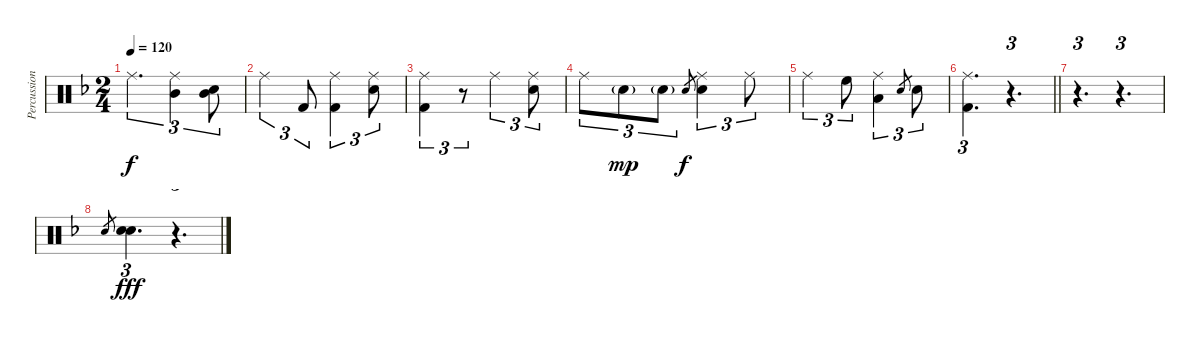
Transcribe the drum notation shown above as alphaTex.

\track ("Percussion" "Percussion") {instrument percussion}
\staff {score}
\articulation defaults
\ts (2 4)
\tempo 120
\clef neutral
\ks dminor "Ride (middle)".4{d tu (3 2) dy f}
("Ride (middle)" "Mid Tom (hit)").4{tu (3 2)} ("Mid Tom (hit)" "Snare (hit) 2").8{tu (3 2)} |
"Ride (middle)".4{tu (3 2)} "Kick (hit) 2".8{tu (3 2)} ("Ride (middle)" "Kick (hit) 2").4{tu (3 2)} ("Ride (middle)" "Snare (hit) 2").8{tu (3 2)} |
("Ride (middle)" "Kick (hit) 2").4{tu (3 2)} r.8{tu (3 2)} "Ride (middle)".4{tu (3 2)} ("Ride (middle)" "Snare (hit) 2").8{tu (3 2)} |
"Ride (middle)".8{tu (3 2)} "Snare (hit) 2"{g}.8{tu (3 2) dy mp} "Snare (hit) 2"{g}.8{tu (3 2)} "Snare (hit) 2".8{gr dy f} ("Ride (middle)" "Snare (hit) 2").4{tu (3 2)} "Ride (middle)".8{tu (3 2)} |
"Ride (middle)".4{tu (3 2)} "High Floor Tom (hit)".8{tu (3 2)} ("Ride (middle)" "Low Tom (hit)").4{tu (3 2)} "Snare (hit) 2".8{gr} "Snare (hit) 2".8{tu (3 2)} |
\barLineRight lightlight
("Ride (middle)" "Kick (hit) 2").4{d tu (3 2)} r.4{d tu (3 2)} |
r.4{d tu (3 2)} r.4{d tu (3 2)} |
"Snare (hit) 2".8{gr} ("Snare (hit) 2" "Electric Snare (hit)").4{d tu (3 2) dy fff} r.4{d tu (3 2)}
